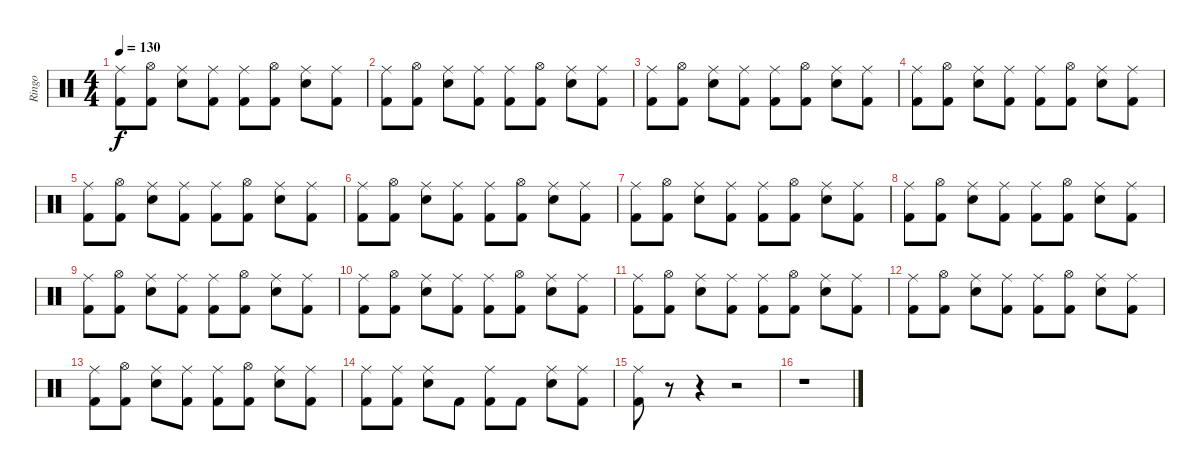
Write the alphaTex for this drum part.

\track ("Ringo" "Ringo") {instrument percussion}
\staff {score}
\articulation defaults
\ts (4 4)
\tempo 130
\clef neutral
\ks c
("Ride (middle)" "Kick (hit) 2").8{dy f} ("Hi-Hat (open)" "Kick (hit) 2").8 ("Ride (middle)" "Snare (hit) 2").8 ("Ride (middle)" "Kick (hit) 2").8 ("Ride (middle)" "Kick (hit) 2").8 ("Hi-Hat (open)" "Kick (hit) 2").8 ("Ride (middle)" "Snare (hit) 2").8 ("Ride (middle)" "Kick (hit) 2").8 |
("Ride (middle)" "Kick (hit) 2").8 ("Hi-Hat (open)" "Kick (hit) 2").8 ("Ride (middle)" "Snare (hit) 2").8 ("Ride (middle)" "Kick (hit) 2").8 ("Ride (middle)" "Kick (hit) 2").8 ("Hi-Hat (open)" "Kick (hit) 2").8 ("Ride (middle)" "Snare (hit) 2").8 ("Ride (middle)" "Kick (hit) 2").8 |
("Ride (middle)" "Kick (hit) 2").8 ("Hi-Hat (open)" "Kick (hit) 2").8 ("Ride (middle)" "Snare (hit) 2").8 ("Ride (middle)" "Kick (hit) 2").8 ("Ride (middle)" "Kick (hit) 2").8 ("Hi-Hat (open)" "Kick (hit) 2").8 ("Ride (middle)" "Snare (hit) 2").8 ("Ride (middle)" "Kick (hit) 2").8 |
("Ride (middle)" "Kick (hit) 2").8 ("Hi-Hat (open)" "Kick (hit) 2").8 ("Ride (middle)" "Snare (hit) 2").8 ("Ride (middle)" "Kick (hit) 2").8 ("Ride (middle)" "Kick (hit) 2").8 ("Hi-Hat (open)" "Kick (hit) 2").8 ("Ride (middle)" "Snare (hit) 2").8 ("Ride (middle)" "Kick (hit) 2").8 |
("Ride (middle)" "Kick (hit) 2").8 ("Hi-Hat (open)" "Kick (hit) 2").8 ("Ride (middle)" "Snare (hit) 2").8 ("Ride (middle)" "Kick (hit) 2").8 ("Ride (middle)" "Kick (hit) 2").8 ("Hi-Hat (open)" "Kick (hit) 2").8 ("Ride (middle)" "Snare (hit) 2").8 ("Ride (middle)" "Kick (hit) 2").8 |
("Ride (middle)" "Kick (hit) 2").8 ("Hi-Hat (open)" "Kick (hit) 2").8 ("Ride (middle)" "Snare (hit) 2").8 ("Ride (middle)" "Kick (hit) 2").8 ("Ride (middle)" "Kick (hit) 2").8 ("Hi-Hat (open)" "Kick (hit) 2").8 ("Ride (middle)" "Snare (hit) 2").8 ("Ride (middle)" "Kick (hit) 2").8 |
("Ride (middle)" "Kick (hit) 2").8 ("Hi-Hat (open)" "Kick (hit) 2").8 ("Ride (middle)" "Snare (hit) 2").8 ("Ride (middle)" "Kick (hit) 2").8 ("Ride (middle)" "Kick (hit) 2").8 ("Hi-Hat (open)" "Kick (hit) 2").8 ("Ride (middle)" "Snare (hit) 2").8 ("Ride (middle)" "Kick (hit) 2").8 |
("Ride (middle)" "Kick (hit) 2").8 ("Hi-Hat (open)" "Kick (hit) 2").8 ("Ride (middle)" "Snare (hit) 2").8 ("Ride (middle)" "Kick (hit) 2").8 ("Ride (middle)" "Kick (hit) 2").8 ("Hi-Hat (open)" "Kick (hit) 2").8 ("Ride (middle)" "Snare (hit) 2").8 ("Ride (middle)" "Kick (hit) 2").8 |
("Ride (middle)" "Kick (hit) 2").8 ("Hi-Hat (open)" "Kick (hit) 2").8 ("Ride (middle)" "Snare (hit) 2").8 ("Ride (middle)" "Kick (hit) 2").8 ("Ride (middle)" "Kick (hit) 2").8 ("Hi-Hat (open)" "Kick (hit) 2").8 ("Ride (middle)" "Snare (hit) 2").8 ("Ride (middle)" "Kick (hit) 2").8 |
("Ride (middle)" "Kick (hit) 2").8 ("Hi-Hat (open)" "Kick (hit) 2").8 ("Ride (middle)" "Snare (hit) 2").8 ("Ride (middle)" "Kick (hit) 2").8 ("Ride (middle)" "Kick (hit) 2").8 ("Hi-Hat (open)" "Kick (hit) 2").8 ("Ride (middle)" "Snare (hit) 2").8 ("Ride (middle)" "Kick (hit) 2").8 |
("Ride (middle)" "Kick (hit) 2").8 ("Hi-Hat (open)" "Kick (hit) 2").8 ("Ride (middle)" "Snare (hit) 2").8 ("Ride (middle)" "Kick (hit) 2").8 ("Ride (middle)" "Kick (hit) 2").8 ("Hi-Hat (open)" "Kick (hit) 2").8 ("Ride (middle)" "Snare (hit) 2").8 ("Ride (middle)" "Kick (hit) 2").8 |
("Ride (middle)" "Kick (hit) 2").8 ("Hi-Hat (open)" "Kick (hit) 2").8 ("Ride (middle)" "Snare (hit) 2").8 ("Ride (middle)" "Kick (hit) 2").8 ("Ride (middle)" "Kick (hit) 2").8 ("Hi-Hat (open)" "Kick (hit) 2").8 ("Ride (middle)" "Snare (hit) 2").8 ("Ride (middle)" "Kick (hit) 2").8 |
("Ride (middle)" "Kick (hit) 2").8 ("Hi-Hat (open)" "Kick (hit) 2").8 ("Ride (middle)" "Snare (hit) 2").8 ("Ride (middle)" "Kick (hit) 2").8 ("Ride (middle)" "Kick (hit) 2").8 ("Hi-Hat (open)" "Kick (hit) 2").8 ("Ride (middle)" "Snare (hit) 2").8 ("Ride (middle)" "Kick (hit) 2").8 |
("Ride (middle)" "Kick (hit) 2").8 ("Ride (middle)" "Kick (hit) 2").8 ("Ride (middle)" "Snare (hit) 2").8 "Kick (hit) 2".8 ("Ride (middle)" "Kick (hit) 2").8 "Kick (hit) 2".8 ("Ride (middle)" "Snare (hit) 2").8 ("Ride (middle)" "Kick (hit) 2").8 |
("Ride (middle)" "Kick (hit) 2").8 r.8 r.4 r.2 |
r.1
